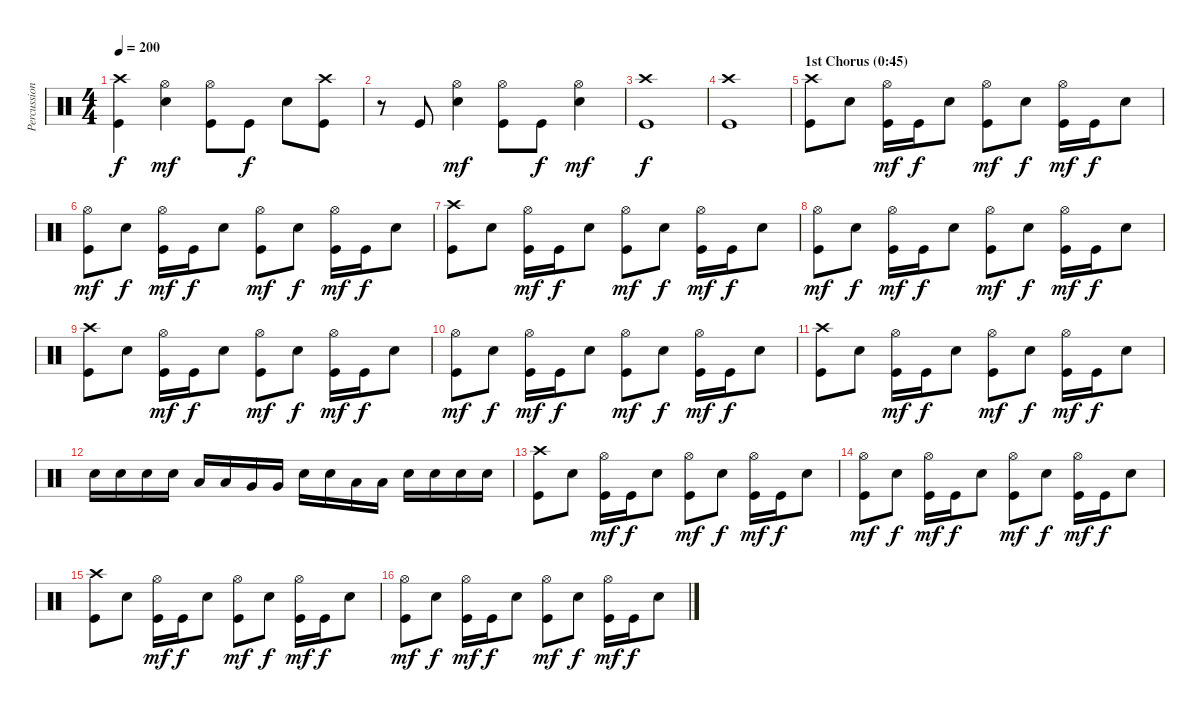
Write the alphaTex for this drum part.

\track ("Percussion" "Percussion") {instrument percussion}
\staff {score}
\articulation defaults
\ts (4 4)
\tempo 200
\clef neutral
\ks c
("Crash high (hit)" "Kick (hit)").4{dy f} ("Hi-Hat (open)" "Snare (hit) 2").4{dy mf} ("Hi-Hat (open)" "Kick (hit)").8 "Kick (hit)".8{dy f} "Snare (hit) 2".8 ("Crash high (hit)" "Kick (hit)").8 |
r.8 "Kick (hit)".8 ("Hi-Hat (open)" "Snare (hit) 2").4{dy mf} ("Hi-Hat (open)" "Kick (hit)").8 "Kick (hit)".8{dy f} ("Hi-Hat (open)" "Snare (hit) 2").4{dy mf} |
("Crash high (hit)" "Kick (hit)").1{dy f} |
("Crash high (hit)" "Kick (hit)").1 |
\section ("" "1st Chorus (0:45)")
("Crash high (hit)" "Kick (hit)").8 "Snare (hit) 2".8 ("Hi-Hat (open)" "Kick (hit)").16{dy mf} "Kick (hit)".16{dy f} "Snare (hit) 2".8 ("Hi-Hat (open)" "Kick (hit)").8{dy mf} "Snare (hit) 2".8{dy f} ("Hi-Hat (open)" "Kick (hit)").16{dy mf} "Kick (hit)".16{dy f} "Snare (hit) 2".8 |
("Hi-Hat (open)" "Kick (hit)").8{dy mf} "Snare (hit) 2".8{dy f} ("Hi-Hat (open)" "Kick (hit)").16{dy mf} "Kick (hit)".16{dy f} "Snare (hit) 2".8 ("Hi-Hat (open)" "Kick (hit)").8{dy mf} "Snare (hit) 2".8{dy f} ("Hi-Hat (open)" "Kick (hit)").16{dy mf} "Kick (hit)".16{dy f} "Snare (hit) 2".8 |
("Crash high (hit)" "Kick (hit)").8 "Snare (hit) 2".8 ("Hi-Hat (open)" "Kick (hit)").16{dy mf} "Kick (hit)".16{dy f} "Snare (hit) 2".8 ("Hi-Hat (open)" "Kick (hit)").8{dy mf} "Snare (hit) 2".8{dy f} ("Hi-Hat (open)" "Kick (hit)").16{dy mf} "Kick (hit)".16{dy f} "Snare (hit) 2".8 |
("Hi-Hat (open)" "Kick (hit)").8{dy mf} "Snare (hit) 2".8{dy f} ("Hi-Hat (open)" "Kick (hit)").16{dy mf} "Kick (hit)".16{dy f} "Snare (hit) 2".8 ("Hi-Hat (open)" "Kick (hit)").8{dy mf} "Snare (hit) 2".8{dy f} ("Hi-Hat (open)" "Kick (hit)").16{dy mf} "Kick (hit)".16{dy f} "Snare (hit) 2".8 |
("Crash high (hit)" "Kick (hit)").8 "Snare (hit) 2".8 ("Hi-Hat (open)" "Kick (hit)").16{dy mf} "Kick (hit)".16{dy f} "Snare (hit) 2".8 ("Hi-Hat (open)" "Kick (hit)").8{dy mf} "Snare (hit) 2".8{dy f} ("Hi-Hat (open)" "Kick (hit)").16{dy mf} "Kick (hit)".16{dy f} "Snare (hit) 2".8 |
("Hi-Hat (open)" "Kick (hit)").8{dy mf} "Snare (hit) 2".8{dy f} ("Hi-Hat (open)" "Kick (hit)").16{dy mf} "Kick (hit)".16{dy f} "Snare (hit) 2".8 ("Hi-Hat (open)" "Kick (hit)").8{dy mf} "Snare (hit) 2".8{dy f} ("Hi-Hat (open)" "Kick (hit)").16{dy mf} "Kick (hit)".16{dy f} "Snare (hit) 2".8 |
("Crash high (hit)" "Kick (hit)").8 "Snare (hit) 2".8 ("Hi-Hat (open)" "Kick (hit)").16{dy mf} "Kick (hit)".16{dy f} "Snare (hit) 2".8 ("Hi-Hat (open)" "Kick (hit)").8{dy mf} "Snare (hit) 2".8{dy f} ("Hi-Hat (open)" "Kick (hit)").16{dy mf} "Kick (hit)".16{dy f} "Snare (hit) 2".8 |
"Snare (hit) 2".16 "Snare (hit) 2".16 "Snare (hit) 2".16 "Snare (hit) 2".16 "Low Tom (hit)".16 "Low Tom (hit)".16 "Very Low Tom (hit)".16 "Very Low Tom (hit)".16 "Snare (hit) 2".16 "Snare (hit) 2".16 "Low Tom (hit)".16 "Low Tom (hit)".16 "Snare (hit) 2".16 "Snare (hit) 2".16 "Snare (hit) 2".16 "Snare (hit) 2".16 |
("Crash high (hit)" "Kick (hit)").8 "Snare (hit) 2".8 ("Hi-Hat (open)" "Kick (hit)").16{dy mf} "Kick (hit)".16{dy f} "Snare (hit) 2".8 ("Hi-Hat (open)" "Kick (hit)").8{dy mf} "Snare (hit) 2".8{dy f} ("Hi-Hat (open)" "Kick (hit)").16{dy mf} "Kick (hit)".16{dy f} "Snare (hit) 2".8 |
("Hi-Hat (open)" "Kick (hit)").8{dy mf} "Snare (hit) 2".8{dy f} ("Hi-Hat (open)" "Kick (hit)").16{dy mf} "Kick (hit)".16{dy f} "Snare (hit) 2".8 ("Hi-Hat (open)" "Kick (hit)").8{dy mf} "Snare (hit) 2".8{dy f} ("Hi-Hat (open)" "Kick (hit)").16{dy mf} "Kick (hit)".16{dy f} "Snare (hit) 2".8 |
("Crash high (hit)" "Kick (hit)").8 "Snare (hit) 2".8 ("Hi-Hat (open)" "Kick (hit)").16{dy mf} "Kick (hit)".16{dy f} "Snare (hit) 2".8 ("Hi-Hat (open)" "Kick (hit)").8{dy mf} "Snare (hit) 2".8{dy f} ("Hi-Hat (open)" "Kick (hit)").16{dy mf} "Kick (hit)".16{dy f} "Snare (hit) 2".8 |
("Hi-Hat (open)" "Kick (hit)").8{dy mf} "Snare (hit) 2".8{dy f} ("Hi-Hat (open)" "Kick (hit)").16{dy mf} "Kick (hit)".16{dy f} "Snare (hit) 2".8 ("Hi-Hat (open)" "Kick (hit)").8{dy mf} "Snare (hit) 2".8{dy f} ("Hi-Hat (open)" "Kick (hit)").16{dy mf} "Kick (hit)".16{dy f} "Snare (hit) 2".8
